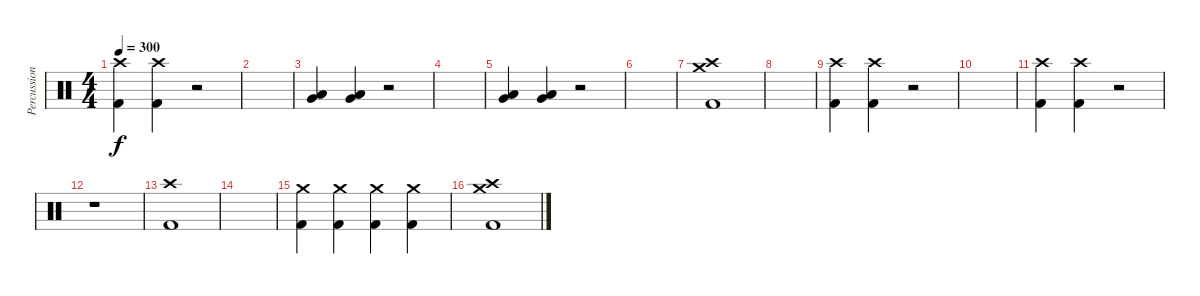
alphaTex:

\track ("Percussion" "Percussion") {instrument percussion}
\staff {score}
\articulation defaults
\ts (4 4)
\tempo 300
\clef neutral
\ks c
("Crash high (hit)" "Kick (hit) 2").4{dy f} ("Crash high (hit)" "Kick (hit) 2").4 r.2 |
|
("Very Low Tom (hit)" "Low Floor Tom (hit)").4 ("Very Low Tom (hit)" "Low Floor Tom (hit)").4 r.2 |
|
("Very Low Tom (hit)" "Low Floor Tom (hit)").4 ("Very Low Tom (hit)" "Low Floor Tom (hit)").4 r.2 |
|
("Crash medium (hit)" "Crash high (hit)" "Kick (hit) 2").1 |
|
("Crash high (hit)" "Kick (hit) 2").4 ("Crash high (hit)" "Kick (hit) 2").4 r.2 |
|
("Crash high (hit)" "Kick (hit) 2").4 ("Crash high (hit)" "Kick (hit) 2").4 r.2 |
r.1 |
("Crash high (hit)" "Kick (hit) 2").1 |
|
("Crash medium (hit)" "Kick (hit) 2").4 ("Crash medium (hit)" "Kick (hit) 2").4 ("Crash medium (hit)" "Kick (hit) 2").4 ("Crash medium (hit)" "Kick (hit) 2").4 |
("Crash high (hit)" "Crash medium (hit)" "Kick (hit) 2").1
